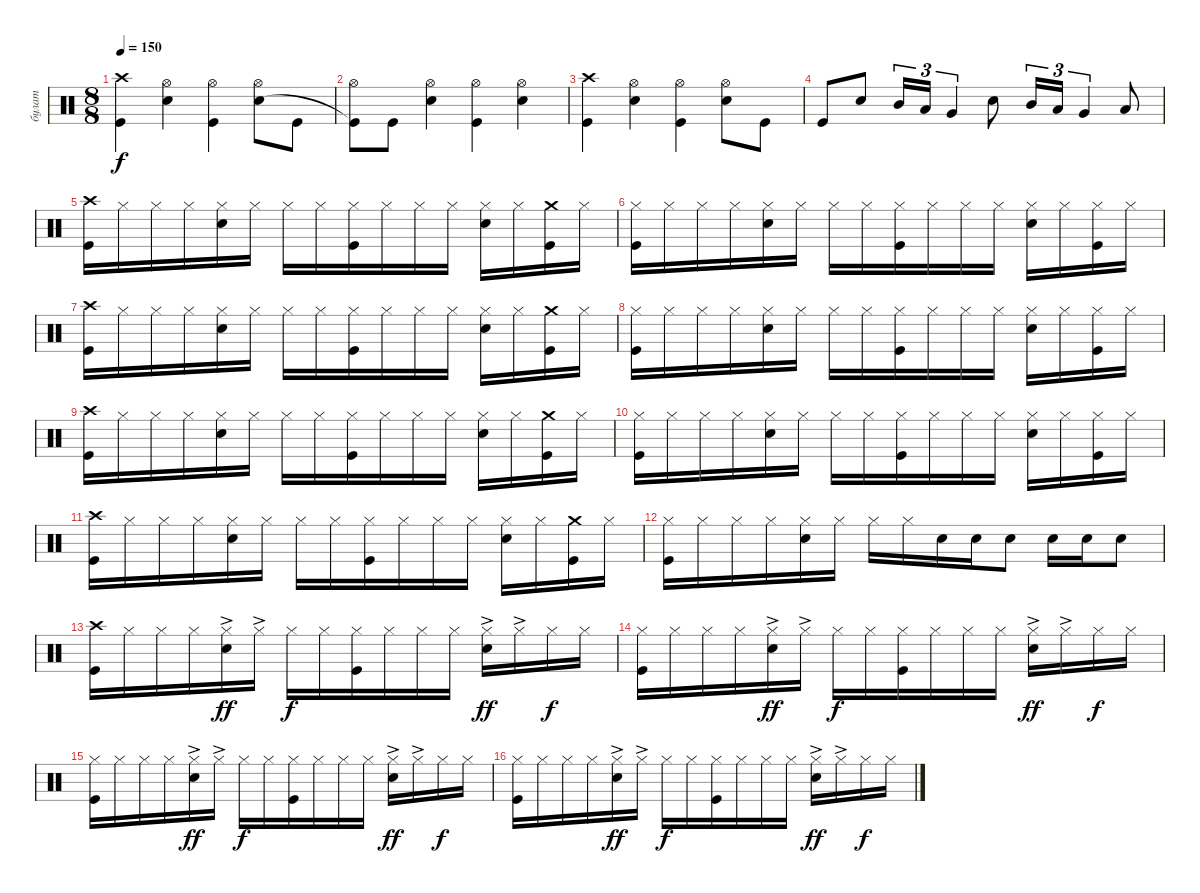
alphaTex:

\track ("булат" "булат") {instrument percussion}
\staff {score}
\articulation defaults
\ts (8 8)
\tempo 150
\clef neutral
\ks c
("Crash high (hit)" "Kick (hit)").4{dy f} ("Hi-Hat (open)" "Snare (hit) 2").4 ("Hi-Hat (open)" "Kick (hit)").4 ("Hi-Hat (open)" "Snare (hit) 2").8 "Kick (hit)".8 |
("Hi-Hat (open)" "Kick (hit)"{t}).8 "Kick (hit)".8 ("Hi-Hat (open)" "Snare (hit) 2").4 ("Hi-Hat (open)" "Kick (hit)").4 ("Hi-Hat (open)" "Snare (hit) 2").4 |
("Crash high (hit)" "Kick (hit)").4 ("Hi-Hat (open)" "Snare (hit) 2").4 ("Hi-Hat (open)" "Kick (hit)").4 ("Hi-Hat (open)" "Snare (hit) 2").8 "Kick (hit)".8 |
"Kick (hit)".8 "Snare (hit) 2".8 "Mid Tom (hit)".16{tu (3 2)} "Low Tom (hit)".16{tu (3 2)} "Very Low Tom (hit)".4{tu (3 2)} "Snare (hit) 2".8 "Mid Tom (hit)".16{tu (3 2)} "Low Tom (hit)".16{tu (3 2)} "Very Low Tom (hit)".4{tu (3 2)} "Low Floor Tom (hit)".8 |
("Crash high (hit)" "Kick (hit)").16 "Hi-Hat (closed)".16 "Hi-Hat (closed)".16 "Hi-Hat (closed)".16 ("Hi-Hat (closed)" "Snare (hit) 2").16 "Hi-Hat (closed)".16 "Hi-Hat (closed)".16 "Hi-Hat (closed)".16 ("Hi-Hat (closed)" "Kick (hit)").16 "Hi-Hat (closed)".16 "Hi-Hat (closed)".16 "Hi-Hat (closed)".16 ("Hi-Hat (closed)" "Snare (hit) 2").16 "Hi-Hat (closed)".16 ("Crash medium (hit)" "Kick (hit)").16 "Hi-Hat (closed)".16 |
("Hi-Hat (closed)" "Kick (hit)").16 "Hi-Hat (closed)".16 "Hi-Hat (closed)".16 "Hi-Hat (closed)".16 ("Hi-Hat (closed)" "Snare (hit) 2").16 "Hi-Hat (closed)".16 "Hi-Hat (closed)".16 "Hi-Hat (closed)".16 ("Hi-Hat (closed)" "Kick (hit)").16 "Hi-Hat (closed)".16 "Hi-Hat (closed)".16 "Hi-Hat (closed)".16 ("Hi-Hat (closed)" "Snare (hit) 2").16 "Hi-Hat (closed)".16 ("Hi-Hat (closed)" "Kick (hit)").16 "Hi-Hat (closed)".16 |
("Crash high (hit)" "Kick (hit)").16 "Hi-Hat (closed)".16 "Hi-Hat (closed)".16 "Hi-Hat (closed)".16 ("Hi-Hat (closed)" "Snare (hit) 2").16 "Hi-Hat (closed)".16 "Hi-Hat (closed)".16 "Hi-Hat (closed)".16 ("Hi-Hat (closed)" "Kick (hit)").16 "Hi-Hat (closed)".16 "Hi-Hat (closed)".16 "Hi-Hat (closed)".16 ("Hi-Hat (closed)" "Snare (hit) 2").16 "Hi-Hat (closed)".16 ("Crash medium (hit)" "Kick (hit)").16 "Hi-Hat (closed)".16 |
("Hi-Hat (closed)" "Kick (hit)").16 "Hi-Hat (closed)".16 "Hi-Hat (closed)".16 "Hi-Hat (closed)".16 ("Hi-Hat (closed)" "Snare (hit) 2").16 "Hi-Hat (closed)".16 "Hi-Hat (closed)".16 "Hi-Hat (closed)".16 ("Hi-Hat (closed)" "Kick (hit)").16 "Hi-Hat (closed)".16 "Hi-Hat (closed)".16 "Hi-Hat (closed)".16 ("Hi-Hat (closed)" "Snare (hit) 2").16 "Hi-Hat (closed)".16 ("Hi-Hat (closed)" "Kick (hit)").16 "Hi-Hat (closed)".16 |
("Crash high (hit)" "Kick (hit)").16 "Hi-Hat (closed)".16 "Hi-Hat (closed)".16 "Hi-Hat (closed)".16 ("Hi-Hat (closed)" "Snare (hit) 2").16 "Hi-Hat (closed)".16 "Hi-Hat (closed)".16 "Hi-Hat (closed)".16 ("Hi-Hat (closed)" "Kick (hit)").16 "Hi-Hat (closed)".16 "Hi-Hat (closed)".16 "Hi-Hat (closed)".16 ("Hi-Hat (closed)" "Snare (hit) 2").16 "Hi-Hat (closed)".16 ("Crash medium (hit)" "Kick (hit)").16 "Hi-Hat (closed)".16 |
("Hi-Hat (closed)" "Kick (hit)").16 "Hi-Hat (closed)".16 "Hi-Hat (closed)".16 "Hi-Hat (closed)".16 ("Hi-Hat (closed)" "Snare (hit) 2").16 "Hi-Hat (closed)".16 "Hi-Hat (closed)".16 "Hi-Hat (closed)".16 ("Hi-Hat (closed)" "Kick (hit)").16 "Hi-Hat (closed)".16 "Hi-Hat (closed)".16 "Hi-Hat (closed)".16 ("Hi-Hat (closed)" "Snare (hit) 2").16 "Hi-Hat (closed)".16 ("Hi-Hat (closed)" "Kick (hit)").16 "Hi-Hat (closed)".16 |
("Crash high (hit)" "Kick (hit)").16 "Hi-Hat (closed)".16 "Hi-Hat (closed)".16 "Hi-Hat (closed)".16 ("Hi-Hat (closed)" "Snare (hit) 2").16 "Hi-Hat (closed)".16 "Hi-Hat (closed)".16 "Hi-Hat (closed)".16 ("Hi-Hat (closed)" "Kick (hit)").16 "Hi-Hat (closed)".16 "Hi-Hat (closed)".16 "Hi-Hat (closed)".16 ("Hi-Hat (closed)" "Snare (hit) 2").16 "Hi-Hat (closed)".16 ("Crash medium (hit)" "Kick (hit)").16 "Hi-Hat (closed)".16 |
("Hi-Hat (closed)" "Kick (hit)").16 "Hi-Hat (closed)".16 "Hi-Hat (closed)".16 "Hi-Hat (closed)".16 ("Hi-Hat (closed)" "Snare (hit) 2").16 "Hi-Hat (closed)".16 "Hi-Hat (closed)".16 "Hi-Hat (closed)".16 "Snare (hit) 2".16 "Snare (hit) 2".16 "Snare (hit) 2".8 "Snare (hit) 2".16 "Snare (hit) 2".16 "Snare (hit) 2".8 |
("Crash high (hit)" "Kick (hit)").16 "Hi-Hat (closed)".16 "Hi-Hat (closed)".16 "Hi-Hat (closed)".16 ("Hi-Hat (closed)"{ac} "Snare (hit) 2").16{dy ff} "Hi-Hat (closed)"{ac}.16 "Hi-Hat (closed)".16{dy f} "Hi-Hat (closed)".16 ("Hi-Hat (closed)" "Kick (hit)").16 "Hi-Hat (closed)".16 "Hi-Hat (closed)".16 "Hi-Hat (closed)".16 ("Hi-Hat (closed)"{ac} "Snare (hit) 2").16{dy ff} "Hi-Hat (closed)"{ac}.16 "Hi-Hat (closed)".16{dy f} "Hi-Hat (closed)".16 |
("Hi-Hat (closed)" "Kick (hit)").16 "Hi-Hat (closed)".16 "Hi-Hat (closed)".16 "Hi-Hat (closed)".16 ("Hi-Hat (closed)"{ac} "Snare (hit) 2").16{dy ff} "Hi-Hat (closed)"{ac}.16 "Hi-Hat (closed)".16{dy f} "Hi-Hat (closed)".16 ("Hi-Hat (closed)" "Kick (hit)").16 "Hi-Hat (closed)".16 "Hi-Hat (closed)".16 "Hi-Hat (closed)".16 ("Hi-Hat (closed)"{ac} "Snare (hit) 2").16{dy ff} "Hi-Hat (closed)"{ac}.16 "Hi-Hat (closed)".16{dy f} "Hi-Hat (closed)".16 |
("Hi-Hat (closed)" "Kick (hit)").16 "Hi-Hat (closed)".16 "Hi-Hat (closed)".16 "Hi-Hat (closed)".16 ("Hi-Hat (closed)"{ac} "Snare (hit) 2").16{dy ff} "Hi-Hat (closed)"{ac}.16 "Hi-Hat (closed)".16{dy f} "Hi-Hat (closed)".16 ("Hi-Hat (closed)" "Kick (hit)").16 "Hi-Hat (closed)".16 "Hi-Hat (closed)".16 "Hi-Hat (closed)".16 ("Hi-Hat (closed)"{ac} "Snare (hit) 2").16{dy ff} "Hi-Hat (closed)"{ac}.16 "Hi-Hat (closed)".16{dy f} "Hi-Hat (closed)".16 |
("Hi-Hat (closed)" "Kick (hit)").16 "Hi-Hat (closed)".16 "Hi-Hat (closed)".16 "Hi-Hat (closed)".16 ("Hi-Hat (closed)"{ac} "Snare (hit) 2").16{dy ff} "Hi-Hat (closed)"{ac}.16 "Hi-Hat (closed)".16{dy f} "Hi-Hat (closed)".16 ("Hi-Hat (closed)" "Kick (hit)").16 "Hi-Hat (closed)".16 "Hi-Hat (closed)".16 "Hi-Hat (closed)".16 ("Hi-Hat (closed)"{ac} "Snare (hit) 2").16{dy ff} "Hi-Hat (closed)"{ac}.16 "Hi-Hat (closed)".16{dy f} "Hi-Hat (closed)".16
